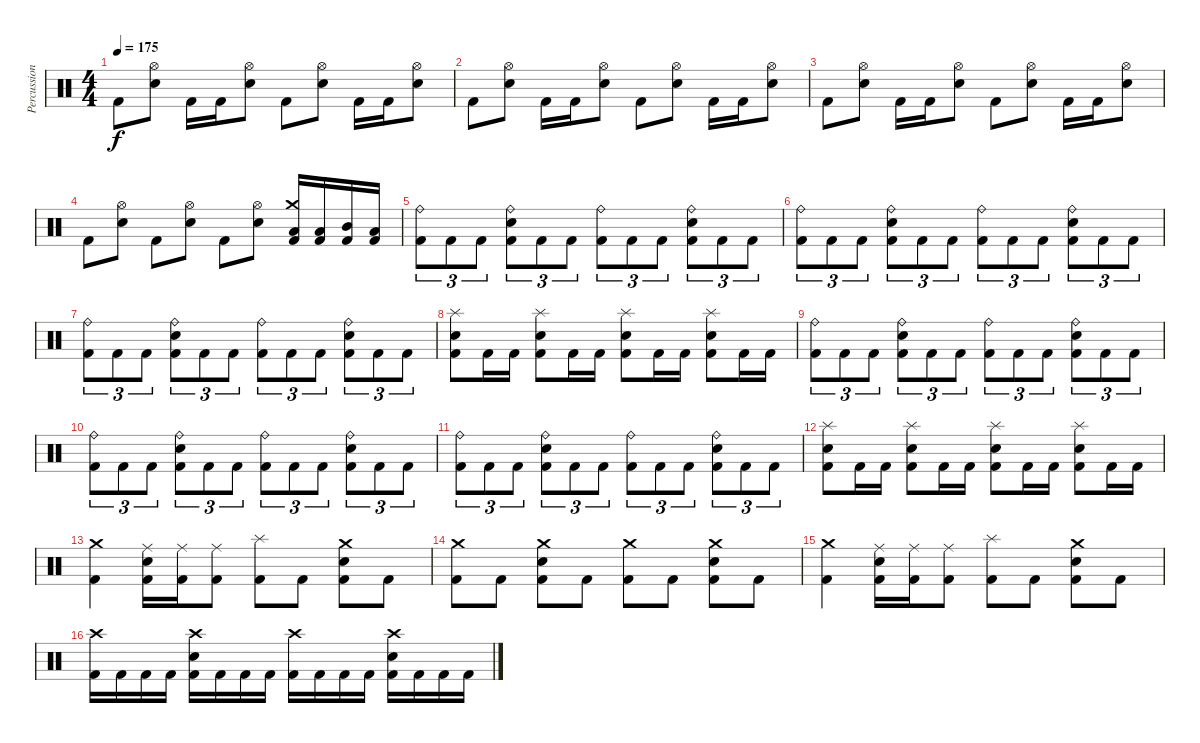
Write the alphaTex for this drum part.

\track ("Percussion" "Percussion") {instrument percussion}
\staff {score}
\articulation defaults
\ts (4 4)
\tempo 175
\clef neutral
\ks c "Kick (hit) 2".8{dy f}
("Hi-Hat (open)" "Electric Snare (hit)").8 "Kick (hit) 2".16 "Kick (hit) 2".16 ("Hi-Hat (open)" "Electric Snare (hit)").8 "Kick (hit) 2".8 ("Hi-Hat (open)" "Electric Snare (hit)").8 "Kick (hit) 2".16 "Kick (hit) 2".16 ("Hi-Hat (open)" "Electric Snare (hit)").8 |
"Kick (hit) 2".8 ("Hi-Hat (open)" "Electric Snare (hit)").8 "Kick (hit) 2".16 "Kick (hit) 2".16 ("Hi-Hat (open)" "Electric Snare (hit)").8 "Kick (hit) 2".8 ("Hi-Hat (open)" "Electric Snare (hit)").8 "Kick (hit) 2".16 "Kick (hit) 2".16 ("Hi-Hat (open)" "Electric Snare (hit)").8 |
"Kick (hit) 2".8 ("Hi-Hat (open)" "Electric Snare (hit)").8 "Kick (hit) 2".16 "Kick (hit) 2".16 ("Hi-Hat (open)" "Electric Snare (hit)").8 "Kick (hit) 2".8 ("Hi-Hat (open)" "Electric Snare (hit)").8 "Kick (hit) 2".16 "Kick (hit) 2".16 ("Hi-Hat (open)" "Electric Snare (hit)").8 |
"Kick (hit) 2".8 ("Hi-Hat (open)" "Electric Snare (hit)").8 "Kick (hit) 2".8 ("Hi-Hat (open)" "Electric Snare (hit)").8 "Kick (hit) 2".8 ("Hi-Hat (open)" "Electric Snare (hit)").8 ("Crash medium (hit)" "Low Tom (hit)" "Kick (hit) 2").16 ("Low Tom (hit)" "Kick (hit) 2").16 ("Mid Tom (hit)" "Kick (hit) 2").16 ("Low Tom (hit)" "Kick (hit) 2").16 |
("Ride (bell)" "Kick (hit) 2").8{tu (3 2)} "Kick (hit) 2".8{tu (3 2)} "Kick (hit) 2".8{tu (3 2)} ("Ride (bell)" "Electric Snare (hit)" "Kick (hit) 2").8{tu (3 2)} "Kick (hit) 2".8{tu (3 2)} "Kick (hit) 2".8{tu (3 2)} ("Ride (bell)" "Kick (hit) 2").8{tu (3 2)} "Kick (hit) 2".8{tu (3 2)} "Kick (hit) 2".8{tu (3 2)} ("Ride (bell)" "Electric Snare (hit)" "Kick (hit) 2").8{tu (3 2)} "Kick (hit) 2".8{tu (3 2)} "Kick (hit) 2".8{tu (3 2)} |
("Ride (bell)" "Kick (hit) 2").8{tu (3 2)} "Kick (hit) 2".8{tu (3 2)} "Kick (hit) 2".8{tu (3 2)} ("Ride (bell)" "Electric Snare (hit)" "Kick (hit) 2").8{tu (3 2)} "Kick (hit) 2".8{tu (3 2)} "Kick (hit) 2".8{tu (3 2)} ("Ride (bell)" "Kick (hit) 2").8{tu (3 2)} "Kick (hit) 2".8{tu (3 2)} "Kick (hit) 2".8{tu (3 2)} ("Ride (bell)" "Electric Snare (hit)" "Kick (hit) 2").8{tu (3 2)} "Kick (hit) 2".8{tu (3 2)} "Kick (hit) 2".8{tu (3 2)} |
("Ride (bell)" "Kick (hit) 2").8{tu (3 2)} "Kick (hit) 2".8{tu (3 2)} "Kick (hit) 2".8{tu (3 2)} ("Ride (bell)" "Electric Snare (hit)" "Kick (hit) 2").8{tu (3 2)} "Kick (hit) 2".8{tu (3 2)} "Kick (hit) 2".8{tu (3 2)} ("Ride (bell)" "Kick (hit) 2").8{tu (3 2)} "Kick (hit) 2".8{tu (3 2)} "Kick (hit) 2".8{tu (3 2)} ("Ride (bell)" "Electric Snare (hit)" "Kick (hit) 2").8{tu (3 2)} "Kick (hit) 2".8{tu (3 2)} "Kick (hit) 2".8{tu (3 2)} |
("Splash (hit)" "Electric Snare (hit)" "Kick (hit) 2").8 "Kick (hit) 2".16 "Kick (hit) 2".16 ("Splash (hit)" "Electric Snare (hit)" "Kick (hit) 2").8 "Kick (hit) 2".16 "Kick (hit) 2".16 ("Splash (hit)" "Electric Snare (hit)" "Kick (hit) 2").8 "Kick (hit) 2".16 "Kick (hit) 2".16 ("Splash (hit)" "Electric Snare (hit)" "Kick (hit) 2").8 "Kick (hit) 2".16 "Kick (hit) 2".16 |
("Ride (bell)" "Kick (hit) 2").8{tu (3 2)} "Kick (hit) 2".8{tu (3 2)} "Kick (hit) 2".8{tu (3 2)} ("Ride (bell)" "Electric Snare (hit)" "Kick (hit) 2").8{tu (3 2)} "Kick (hit) 2".8{tu (3 2)} "Kick (hit) 2".8{tu (3 2)} ("Ride (bell)" "Kick (hit) 2").8{tu (3 2)} "Kick (hit) 2".8{tu (3 2)} "Kick (hit) 2".8{tu (3 2)} ("Ride (bell)" "Electric Snare (hit)" "Kick (hit) 2").8{tu (3 2)} "Kick (hit) 2".8{tu (3 2)} "Kick (hit) 2".8{tu (3 2)} |
("Ride (bell)" "Kick (hit) 2").8{tu (3 2)} "Kick (hit) 2".8{tu (3 2)} "Kick (hit) 2".8{tu (3 2)} ("Ride (bell)" "Electric Snare (hit)" "Kick (hit) 2").8{tu (3 2)} "Kick (hit) 2".8{tu (3 2)} "Kick (hit) 2".8{tu (3 2)} ("Ride (bell)" "Kick (hit) 2").8{tu (3 2)} "Kick (hit) 2".8{tu (3 2)} "Kick (hit) 2".8{tu (3 2)} ("Ride (bell)" "Electric Snare (hit)" "Kick (hit) 2").8{tu (3 2)} "Kick (hit) 2".8{tu (3 2)} "Kick (hit) 2".8{tu (3 2)} |
("Ride (bell)" "Kick (hit) 2").8{tu (3 2)} "Kick (hit) 2".8{tu (3 2)} "Kick (hit) 2".8{tu (3 2)} ("Ride (bell)" "Electric Snare (hit)" "Kick (hit) 2").8{tu (3 2)} "Kick (hit) 2".8{tu (3 2)} "Kick (hit) 2".8{tu (3 2)} ("Ride (bell)" "Kick (hit) 2").8{tu (3 2)} "Kick (hit) 2".8{tu (3 2)} "Kick (hit) 2".8{tu (3 2)} ("Ride (bell)" "Electric Snare (hit)" "Kick (hit) 2").8{tu (3 2)} "Kick (hit) 2".8{tu (3 2)} "Kick (hit) 2".8{tu (3 2)} |
("Splash (hit)" "Electric Snare (hit)" "Kick (hit) 2").8 "Kick (hit) 2".16 "Kick (hit) 2".16 ("Splash (hit)" "Electric Snare (hit)" "Kick (hit) 2").8 "Kick (hit) 2".16 "Kick (hit) 2".16 ("Splash (hit)" "Electric Snare (hit)" "Kick (hit) 2").8 "Kick (hit) 2".16 "Kick (hit) 2".16 ("Splash (hit)" "Electric Snare (hit)" "Kick (hit) 2").8 "Kick (hit) 2".16 "Kick (hit) 2".16 |
("Crash medium (hit)" "Kick (hit) 2").4 ("Ride (middle)" "Electric Snare (hit)" "Kick (hit) 2").16 ("Ride (middle)" "Kick (hit) 2").16 ("Ride (middle)" "Kick (hit) 2").8 ("Splash (hit)" "Kick (hit) 2").8 "Kick (hit) 2".8 ("Crash medium (hit)" "Electric Snare (hit)" "Kick (hit) 2").8 "Kick (hit) 2".8 |
("Crash medium (hit)" "Kick (hit) 2").8 "Kick (hit) 2".8 ("Crash medium (hit)" "Electric Snare (hit)" "Kick (hit) 2").8 "Kick (hit) 2".8 ("Crash medium (hit)" "Kick (hit) 2").8 "Kick (hit) 2".8 ("Crash medium (hit)" "Electric Snare (hit)" "Kick (hit) 2").8 "Kick (hit) 2".8 |
("Crash medium (hit)" "Kick (hit) 2").4 ("Ride (middle)" "Electric Snare (hit)" "Kick (hit) 2").16 ("Ride (middle)" "Kick (hit) 2").16 ("Ride (middle)" "Kick (hit) 2").8 ("Splash (hit)" "Kick (hit) 2").8 "Kick (hit) 2".8 ("Crash medium (hit)" "Electric Snare (hit)" "Kick (hit) 2").8 "Kick (hit) 2".8 |
("Crash high (hit)" "Kick (hit) 2").16 "Kick (hit) 2".16 "Kick (hit) 2".16 "Kick (hit) 2".16 ("Crash high (hit)" "Electric Snare (hit)" "Kick (hit) 2").16 "Kick (hit) 2".16 "Kick (hit) 2".16 "Kick (hit) 2".16 ("Crash high (hit)" "Kick (hit) 2").16 "Kick (hit) 2".16 "Kick (hit) 2".16 "Kick (hit) 2".16 ("Crash high (hit)" "Electric Snare (hit)" "Kick (hit) 2").16 "Kick (hit) 2".16 "Kick (hit) 2".16 "Kick (hit) 2".16
